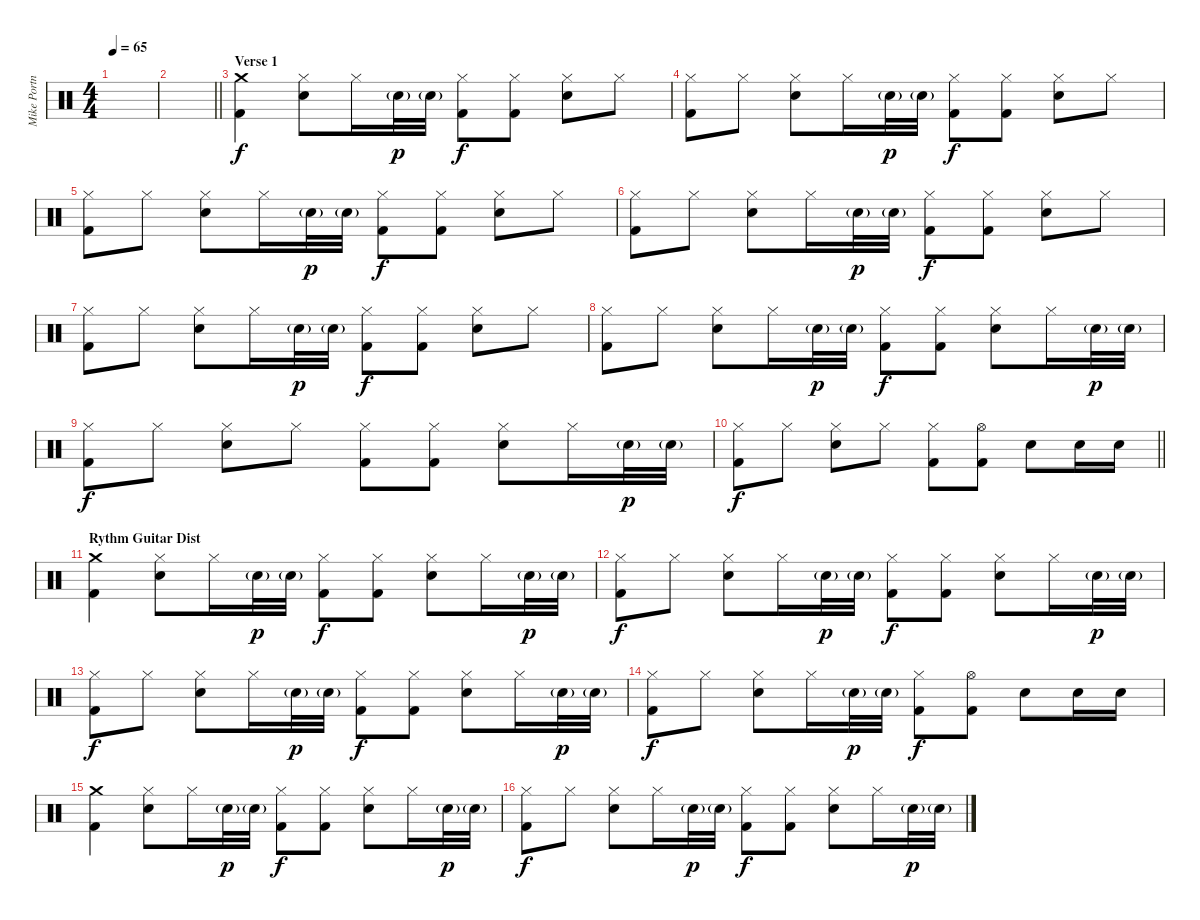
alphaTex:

\track ("Mike Portnoy [Drums]" "Mike Portn") {instrument percussion}
\staff {score}
\articulation defaults
\ts (4 4)
\tempo 65
\clef neutral
\ks c
|
\barLineRight lightlight
|
\section ("" "Verse 1")
("Crash medium (hit)" "Kick (hit) 2").4 ("Hi-Hat (closed)" "Electric Snare (hit)").8 "Hi-Hat (closed)".16 "Electric Snare (hit)"{g}.32{dy p} "Electric Snare (hit)"{g}.32 ("Hi-Hat (closed)" "Kick (hit) 2").8{dy f} ("Hi-Hat (closed)" "Kick (hit) 2").8 ("Hi-Hat (closed)" "Electric Snare (hit)").8 "Hi-Hat (closed)".8 |
("Hi-Hat (closed)" "Kick (hit) 2").8 "Hi-Hat (closed)".8 ("Hi-Hat (closed)" "Electric Snare (hit)").8 "Hi-Hat (closed)".16 "Electric Snare (hit)"{g}.32{dy p} "Electric Snare (hit)"{g}.32 ("Hi-Hat (closed)" "Kick (hit) 2").8{dy f} ("Hi-Hat (closed)" "Kick (hit) 2").8 ("Hi-Hat (closed)" "Electric Snare (hit)").8 "Hi-Hat (closed)".8 |
("Hi-Hat (closed)" "Kick (hit) 2").8 "Hi-Hat (closed)".8 ("Hi-Hat (closed)" "Electric Snare (hit)").8 "Hi-Hat (closed)".16 "Electric Snare (hit)"{g}.32{dy p} "Electric Snare (hit)"{g}.32 ("Hi-Hat (closed)" "Kick (hit) 2").8{dy f} ("Hi-Hat (closed)" "Kick (hit) 2").8 ("Hi-Hat (closed)" "Electric Snare (hit)").8 "Hi-Hat (closed)".8 |
("Hi-Hat (closed)" "Kick (hit) 2").8 "Hi-Hat (closed)".8 ("Hi-Hat (closed)" "Electric Snare (hit)").8 "Hi-Hat (closed)".16 "Electric Snare (hit)"{g}.32{dy p} "Electric Snare (hit)"{g}.32 ("Hi-Hat (closed)" "Kick (hit) 2").8{dy f} ("Hi-Hat (closed)" "Kick (hit) 2").8 ("Hi-Hat (closed)" "Electric Snare (hit)").8 "Hi-Hat (closed)".8 |
("Hi-Hat (closed)" "Kick (hit) 2").8 "Hi-Hat (closed)".8 ("Hi-Hat (closed)" "Electric Snare (hit)").8 "Hi-Hat (closed)".16 "Electric Snare (hit)"{g}.32{dy p} "Electric Snare (hit)"{g}.32 ("Hi-Hat (closed)" "Kick (hit) 2").8{dy f} ("Hi-Hat (closed)" "Kick (hit) 2").8 ("Hi-Hat (closed)" "Electric Snare (hit)").8 "Hi-Hat (closed)".8 |
("Hi-Hat (closed)" "Kick (hit) 2").8 "Hi-Hat (closed)".8 ("Hi-Hat (closed)" "Electric Snare (hit)").8 "Hi-Hat (closed)".16 "Electric Snare (hit)"{g}.32{dy p} "Electric Snare (hit)"{g}.32 ("Hi-Hat (closed)" "Kick (hit) 2").8{dy f} ("Hi-Hat (closed)" "Kick (hit) 2").8 ("Hi-Hat (closed)" "Electric Snare (hit)").8 "Hi-Hat (closed)".16 "Electric Snare (hit)"{g}.32{dy p} "Electric Snare (hit)"{g}.32 |
("Hi-Hat (closed)" "Kick (hit) 2").8{dy f} "Hi-Hat (closed)".8 ("Hi-Hat (closed)" "Electric Snare (hit)").8 "Hi-Hat (closed)".8 ("Hi-Hat (closed)" "Kick (hit) 2").8 ("Hi-Hat (closed)" "Kick (hit) 2").8 ("Hi-Hat (closed)" "Electric Snare (hit)").8 "Hi-Hat (closed)".16 "Electric Snare (hit)"{g}.32{dy p} "Electric Snare (hit)"{g}.32 |
\barLineRight lightlight
("Hi-Hat (closed)" "Kick (hit) 2").8{dy f} "Hi-Hat (closed)".8 ("Hi-Hat (closed)" "Electric Snare (hit)").8 "Hi-Hat (closed)".8 ("Hi-Hat (closed)" "Kick (hit) 2").8 ("Hi-Hat (open)" "Kick (hit) 2").8 "Electric Snare (hit)".8 "Electric Snare (hit)".16 "Electric Snare (hit)".16 |
\section ("" "Rythm Guitar Dist")
("Crash medium (hit)" "Kick (hit) 2").4 ("Hi-Hat (closed)" "Electric Snare (hit)").8 "Hi-Hat (closed)".16 "Electric Snare (hit)"{g}.32{dy p} "Electric Snare (hit)"{g}.32 ("Hi-Hat (closed)" "Kick (hit) 2").8{dy f} ("Hi-Hat (closed)" "Kick (hit) 2").8 ("Hi-Hat (closed)" "Electric Snare (hit)").8 "Hi-Hat (closed)".16 "Electric Snare (hit)"{g}.32{dy p} "Electric Snare (hit)"{g}.32 |
("Hi-Hat (closed)" "Kick (hit) 2").8{dy f} "Hi-Hat (closed)".8 ("Hi-Hat (closed)" "Electric Snare (hit)").8 "Hi-Hat (closed)".16 "Electric Snare (hit)"{g}.32{dy p} "Electric Snare (hit)"{g}.32 ("Hi-Hat (closed)" "Kick (hit) 2").8{dy f} ("Hi-Hat (closed)" "Kick (hit) 2").8 ("Hi-Hat (closed)" "Electric Snare (hit)").8 "Hi-Hat (closed)".16 "Electric Snare (hit)"{g}.32{dy p} "Electric Snare (hit)"{g}.32 |
("Hi-Hat (closed)" "Kick (hit) 2").8{dy f} "Hi-Hat (closed)".8 ("Hi-Hat (closed)" "Electric Snare (hit)").8 "Hi-Hat (closed)".16 "Electric Snare (hit)"{g}.32{dy p} "Electric Snare (hit)"{g}.32 ("Hi-Hat (closed)" "Kick (hit) 2").8{dy f} ("Hi-Hat (closed)" "Kick (hit) 2").8 ("Hi-Hat (closed)" "Electric Snare (hit)").8 "Hi-Hat (closed)".16 "Electric Snare (hit)"{g}.32{dy p} "Electric Snare (hit)"{g}.32 |
("Hi-Hat (closed)" "Kick (hit) 2").8{dy f} "Hi-Hat (closed)".8 ("Hi-Hat (closed)" "Electric Snare (hit)").8 "Hi-Hat (closed)".16 "Electric Snare (hit)"{g}.32{dy p} "Electric Snare (hit)"{g}.32 ("Hi-Hat (closed)" "Kick (hit) 2").8{dy f} ("Hi-Hat (open)" "Kick (hit) 2").8 "Electric Snare (hit)".8 "Electric Snare (hit)".16 "Electric Snare (hit)".16 |
("Crash medium (hit)" "Kick (hit) 2").4 ("Hi-Hat (closed)" "Electric Snare (hit)").8 "Hi-Hat (closed)".16 "Electric Snare (hit)"{g}.32{dy p} "Electric Snare (hit)"{g}.32 ("Hi-Hat (closed)" "Kick (hit) 2").8{dy f} ("Hi-Hat (closed)" "Kick (hit) 2").8 ("Hi-Hat (closed)" "Electric Snare (hit)").8 "Hi-Hat (closed)".16 "Electric Snare (hit)"{g}.32{dy p} "Electric Snare (hit)"{g}.32 |
("Hi-Hat (closed)" "Kick (hit) 2").8{dy f} "Hi-Hat (closed)".8 ("Hi-Hat (closed)" "Electric Snare (hit)").8 "Hi-Hat (closed)".16 "Electric Snare (hit)"{g}.32{dy p} "Electric Snare (hit)"{g}.32 ("Hi-Hat (closed)" "Kick (hit) 2").8{dy f} ("Hi-Hat (closed)" "Kick (hit) 2").8 ("Hi-Hat (closed)" "Electric Snare (hit)").8 "Hi-Hat (closed)".16 "Electric Snare (hit)"{g}.32{dy p} "Electric Snare (hit)"{g}.32
